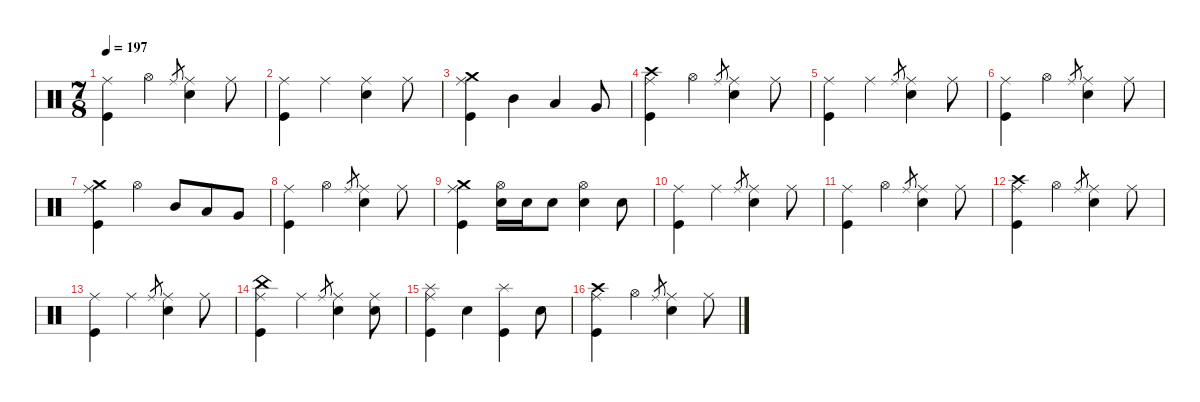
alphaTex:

\defaultSystemsLayout 4
\hideDynamics
\bracketExtendMode nobrackets
\singleTrackTrackNamePolicy hidden
\multiTrackTrackNamePolicy hidden
\firstSystemTrackNameMode fullname
\firstSystemTrackNameOrientation horizontal
\otherSystemsTrackNameOrientation horizontal
\track ("Drums" "drm.") {defaultSystemsLayout 4 instrument percussion}
\staff {score}
\articulation defaults
\ts (7 8)
\tempo 197
\clef neutral
\ks c
("Ride (middle)" "Kick (hit)").4{dy f beam Down} "Hi-Hat (open)".4{beam Down} "Ride (middle)".8{gr dy mf beam Up} ("Ride (middle)" "Snare (hit) 2").4{dy f beam Down} "Ride (middle)".8{beam Down} |
("Ride (middle)" "Kick (hit)").4{beam Down} "Ride (middle)".4{beam Down} ("Ride (middle)" "Snare (hit) 2").4{beam Down} "Ride (middle)".8{beam Down} |
("Crash medium (hit)" "Ride (middle)" "Kick (hit)").4{dy mp beam Down} "Mid Tom (hit)".4{dy f beam Down} "Low Tom (hit)".4{beam Up} "Very Low Tom (hit)".8{beam Up} |
("Crash high (hit)" "Ride (middle)" "Kick (hit)").4{dy mf beam Down} "Hi-Hat (open)".4{dy f beam Down} "Ride (middle)".8{gr dy mf beam Up} ("Ride (middle)" "Snare (hit) 2").4{dy f beam Down} "Ride (middle)".8{beam Down} |
("Ride (middle)" "Kick (hit)").4{beam Down} "Ride (middle)".4{beam Down} "Ride (middle)".8{gr dy mf beam Up} ("Ride (middle)" "Snare (hit) 2").4{dy f beam Down} "Ride (middle)".8{beam Down} |
("Ride (middle)" "Kick (hit)").4{beam Down} "Hi-Hat (open)".4{beam Down} "Ride (middle)".8{gr dy mf beam Up} ("Ride (middle)" "Snare (hit) 2").4{dy f beam Down} "Ride (middle)".8{beam Down} |
("Crash medium (hit)" "Ride (middle)" "Kick (hit)").4{dy mp beam Down} "Hi-Hat (open)".4{dy f beam Down} "Mid Tom (hit)".8{beam Up} "Low Tom (hit)".8{beam Up} "Very Low Tom (hit)".8{beam Up} |
("Ride (middle)" "Kick (hit)").4{beam Down} "Hi-Hat (open)".4{beam Down} "Ride (middle)".8{gr dy mf beam Up} ("Ride (middle)" "Snare (hit) 2").4{dy f beam Down} "Ride (middle)".8{beam Down} |
("Crash medium (hit)" "Ride (middle)" "Kick (hit)").4{dy mp beam Down} ("Hi-Hat (open)" "Snare (hit) 2").16{dy f beam Down} "Snare (hit) 2".16{dy mp beam Down} "Snare (hit) 2".8{dy mf beam Down} ("Hi-Hat (open)" "Snare (hit) 2").4{dy f beam Down} "Snare (hit) 2".8{beam Down} |
("Ride (middle)" "Kick (hit)").4{beam Down} "Ride (middle)".4{beam Down} "Ride (middle)".8{gr dy mf beam Up} ("Ride (middle)" "Snare (hit) 2").4{dy f beam Down} "Ride (middle)".8{beam Down} |
("Ride (middle)" "Kick (hit)").4{beam Down} "Hi-Hat (open)".4{beam Down} "Ride (middle)".8{gr dy mf beam Up} ("Ride (middle)" "Snare (hit) 2").4{dy f beam Down} "Ride (middle)".8{beam Down} |
("Crash high (hit)" "Ride (middle)" "Kick (hit)").4{dy mf beam Down} "Hi-Hat (open)".4{dy f beam Down} "Ride (middle)".8{gr dy mf beam Up} ("Ride (middle)" "Snare (hit) 2").4{dy f beam Down} "Ride (middle)".8{beam Down} |
("Ride (middle)" "Kick (hit)").4{beam Down} "Ride (middle)".4{beam Down} "Ride (middle)".8{gr dy mf beam Up} ("Ride (middle)" "Snare (hit) 2").4{dy f beam Down} "Ride (middle)".8{beam Down} |
("China (hit)" "Ride (middle)" "Kick (hit)").4{dy mf beam Down} "Ride (middle)".4{dy f beam Down} "Ride (middle)".8{gr dy mf beam Up} ("Ride (middle)" "Snare (hit) 2").4{dy f beam Down} ("Ride (middle)" "Snare (hit) 2").8{beam Down} |
("Splash (hit)" "Ride (middle)" "Kick (hit)").4{dy mp beam Down} "Snare (hit) 2".4{dy f beam Down} ("Splash (hit)" "Kick (hit)").4{dy mp beam Down} "Snare (hit) 2".8{dy f beam Down} |
("Crash high (hit)" "Ride (middle)" "Kick (hit)").4{dy mf beam Down} "Hi-Hat (open)".4{dy f beam Down} "Ride (middle)".8{gr dy mf beam Up} ("Ride (middle)" "Snare (hit) 2").4{dy f beam Down} "Ride (middle)".8{beam Down}
